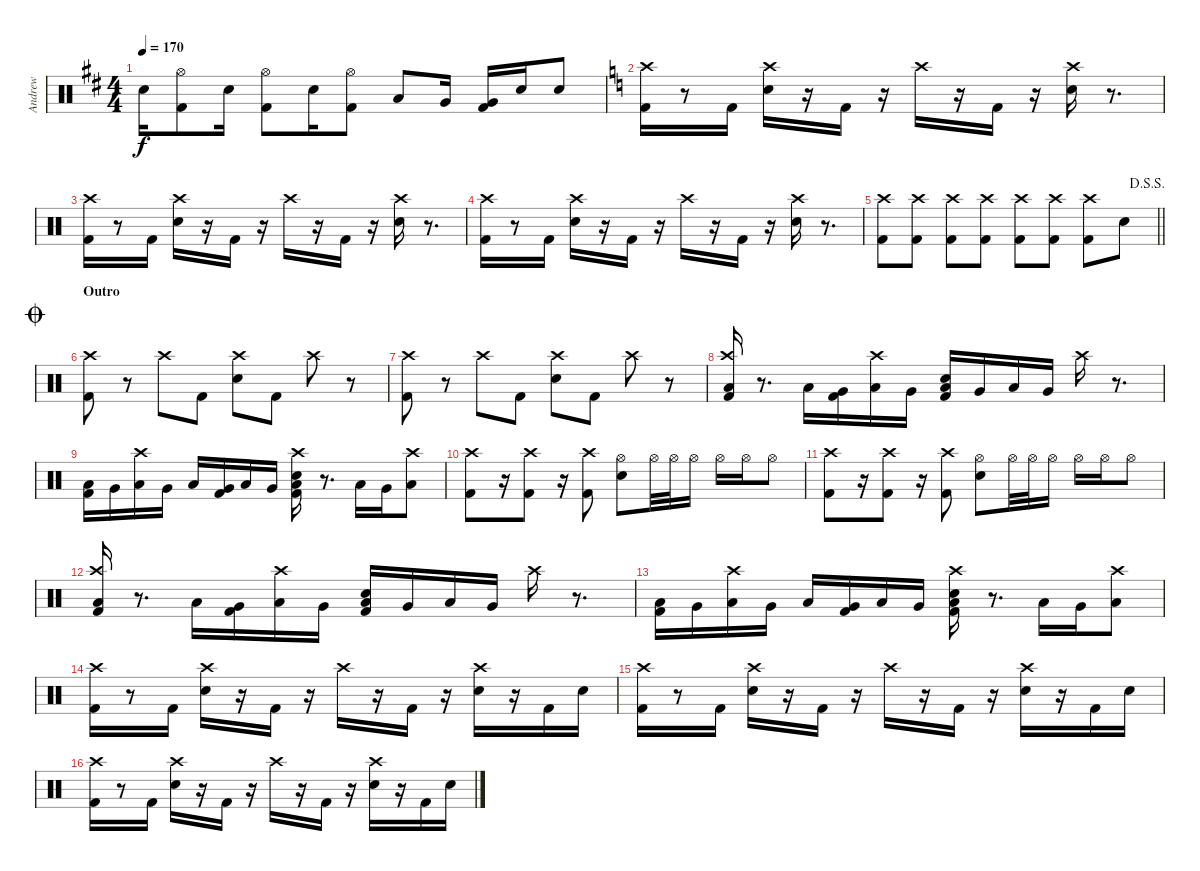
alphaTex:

\track ("Andrew" "Andrew") {instrument percussion}
\staff {score}
\articulation defaults
\ts (4 4)
\tempo 170
\clef neutral
\ks d "Electric Snare (hit)".16{dy f}
("Hi-Hat (open)" "Kick (hit) 2").8 "Electric Snare (hit)".16 ("Hi-Hat (open)" "Kick (hit) 2").8 "Electric Snare (hit)".16 ("Hi-Hat (open)" "Kick (hit) 2").8 "Low Tom (hit)".8 "Very Low Tom (hit)".16 ("Very Low Tom (hit)" "Kick (hit) 2").16 "Electric Snare (hit)".16 "Electric Snare (hit)".8 |
\ks c
("Crash high (hit)" "Kick (hit) 2").16 r.8 "Kick (hit) 2".16 ("Crash high (hit)" "Electric Snare (hit)").16 r.16 "Kick (hit) 2".16 r.16 "Crash high (hit)".16 r.16 "Kick (hit) 2".16 r.16 ("Crash high (hit)" "Electric Snare (hit)").16 r.8{d} |
("Crash high (hit)" "Kick (hit) 2").16 r.8 "Kick (hit) 2".16 ("Crash high (hit)" "Electric Snare (hit)").16 r.16 "Kick (hit) 2".16 r.16 "Crash high (hit)".16 r.16 "Kick (hit) 2".16 r.16 ("Crash high (hit)" "Electric Snare (hit)").16 r.8{d} |
("Crash high (hit)" "Kick (hit) 2").16 r.8 "Kick (hit) 2".16 ("Crash high (hit)" "Electric Snare (hit)").16 r.16 "Kick (hit) 2".16 r.16 "Crash high (hit)".16 r.16 "Kick (hit) 2".16 r.16 ("Crash high (hit)" "Electric Snare (hit)").16 r.8{d} |
\jump dalsegnosegno
\barLineRight lightlight
("Crash high (hit)" "Kick (hit) 2").8 ("Crash high (hit)" "Kick (hit) 2").8 ("Crash high (hit)" "Kick (hit) 2").8 ("Crash high (hit)" "Kick (hit) 2").8 ("Crash high (hit)" "Kick (hit) 2").8 ("Crash high (hit)" "Kick (hit) 2").8 ("Crash high (hit)" "Kick (hit) 2").8 "Electric Snare (hit)".8 |
\section ("" "Outro")
\jump coda
("Crash high (hit)" "Kick (hit) 2").8 r.8 "Crash high (hit)".8 "Kick (hit) 2".8 ("Crash high (hit)" "Electric Snare (hit)").8 "Kick (hit) 2".8 "Crash high (hit)".8 r.8 |
("Crash high (hit)" "Kick (hit) 2").8 r.8 "Crash high (hit)".8 "Kick (hit) 2".8 ("Crash high (hit)" "Electric Snare (hit)").8 "Kick (hit) 2".8 "Crash high (hit)".8 r.8 |
("Crash high (hit)" "Low Floor Tom (hit)" "Kick (hit) 2").16 r.8{d} "Low Floor Tom (hit)".16 ("Very Low Tom (hit)" "Kick (hit) 2").16 ("Crash high (hit)" "Low Floor Tom (hit)").16 "Very Low Tom (hit)".16 ("Electric Snare (hit)" "Low Floor Tom (hit)" "Kick (hit) 2").16 "Very Low Tom (hit)".16 "Low Floor Tom (hit)".16 "Very Low Tom (hit)".16 "Crash high (hit)".16 r.8{d} |
("Low Floor Tom (hit)" "Kick (hit) 2").16 "Very Low Tom (hit)".16 ("Crash high (hit)" "Low Floor Tom (hit)").16 "Very Low Tom (hit)".16 "Low Floor Tom (hit)".16 ("Very Low Tom (hit)" "Kick (hit) 2").16 "Low Floor Tom (hit)".16 "Very Low Tom (hit)".16 ("Crash high (hit)" "Electric Snare (hit)" "Low Floor Tom (hit)" "Kick (hit) 2").16 r.8{d} "Low Floor Tom (hit)".16 "Very Low Tom (hit)".16 ("Crash high (hit)" "Low Floor Tom (hit)").8 |
("Crash high (hit)" "Kick (hit) 2").8 r.16 ("Crash high (hit)" "Kick (hit) 2").8 r.16 ("Crash high (hit)" "Kick (hit) 2").8 ("Hi-Hat (open)" "Electric Snare (hit)").8 "Hi-Hat (open)".32 "Hi-Hat (open)".32 "Hi-Hat (open)".16 "Hi-Hat (open)".16 "Hi-Hat (open)".16 "Hi-Hat (open)".8 |
("Crash high (hit)" "Kick (hit) 2").8 r.16 ("Crash high (hit)" "Kick (hit) 2").8 r.16 ("Crash high (hit)" "Kick (hit) 2").8 ("Hi-Hat (open)" "Electric Snare (hit)").8 "Hi-Hat (open)".32 "Hi-Hat (open)".32 "Hi-Hat (open)".16 "Hi-Hat (open)".16 "Hi-Hat (open)".16 "Hi-Hat (open)".8 |
("Crash high (hit)" "Low Floor Tom (hit)" "Kick (hit) 2").16 r.8{d} "Low Floor Tom (hit)".16 ("Very Low Tom (hit)" "Kick (hit) 2").16 ("Crash high (hit)" "Low Floor Tom (hit)").16 "Very Low Tom (hit)".16 ("Electric Snare (hit)" "Low Floor Tom (hit)" "Kick (hit) 2").16 "Very Low Tom (hit)".16 "Low Floor Tom (hit)".16 "Very Low Tom (hit)".16 "Crash high (hit)".16 r.8{d} |
("Low Floor Tom (hit)" "Kick (hit) 2").16 "Very Low Tom (hit)".16 ("Crash high (hit)" "Low Floor Tom (hit)").16 "Very Low Tom (hit)".16 "Low Floor Tom (hit)".16 ("Very Low Tom (hit)" "Kick (hit) 2").16 "Low Floor Tom (hit)".16 "Very Low Tom (hit)".16 ("Crash high (hit)" "Electric Snare (hit)" "Low Floor Tom (hit)" "Kick (hit) 2").16 r.8{d} "Low Floor Tom (hit)".16 "Very Low Tom (hit)".16 ("Crash high (hit)" "Low Floor Tom (hit)").8 |
("Crash high (hit)" "Kick (hit) 2").16 r.8 "Kick (hit) 2".16 ("Crash high (hit)" "Electric Snare (hit)").16 r.16 "Kick (hit) 2".16 r.16 "Crash high (hit)".16 r.16 "Kick (hit) 2".16 r.16 ("Crash high (hit)" "Electric Snare (hit)").16 r.16 "Kick (hit) 2".16 "Electric Snare (hit)".16 |
("Crash high (hit)" "Kick (hit) 2").16 r.8 "Kick (hit) 2".16 ("Crash high (hit)" "Electric Snare (hit)").16 r.16 "Kick (hit) 2".16 r.16 "Crash high (hit)".16 r.16 "Kick (hit) 2".16 r.16 ("Crash high (hit)" "Electric Snare (hit)").16 r.16 "Kick (hit) 2".16 "Electric Snare (hit)".16 |
("Crash high (hit)" "Kick (hit) 2").16 r.8 "Kick (hit) 2".16 ("Crash high (hit)" "Electric Snare (hit)").16 r.16 "Kick (hit) 2".16 r.16 "Crash high (hit)".16 r.16 "Kick (hit) 2".16 r.16 ("Crash high (hit)" "Electric Snare (hit)").16 r.16 "Kick (hit) 2".16 "Electric Snare (hit)".16
